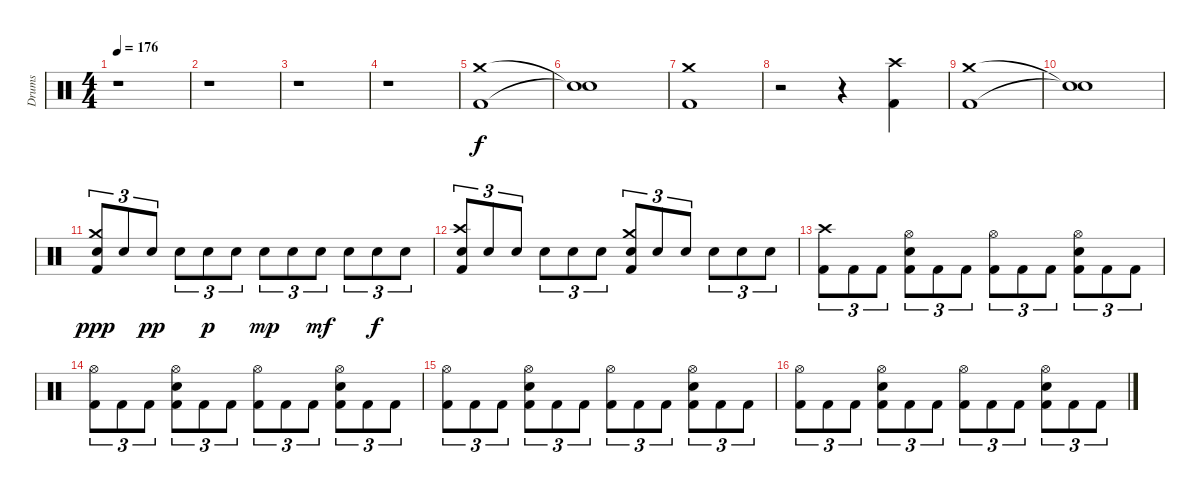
\track ("Drums" "Drums") {instrument percussion}
\staff {score}
\articulation defaults
\ts (4 4)
\tempo 176
\clef neutral
\ks c
r.1{dy f} |
r.1 |
r.1 |
r.1 |
("Kick (hit) 2" "Crash medium (hit)").1 |
("Snare (hit)"{t} "Snare (hit)"{t}).1 |
("Kick (hit) 2" "Crash medium (hit)").1 |
r.2 r.4 ("Kick (hit) 2" "Crash high (hit)").4 |
("Kick (hit) 2" "Crash medium (hit)").1 |
("Snare (hit)"{t} "Snare (hit)"{t}).1 |
("Kick (hit) 2" "Electric Snare (hit)" "Crash medium (hit)").8{tu (3 2) dy ppp} "Electric Snare (hit)".8{tu (3 2)} "Electric Snare (hit)".8{tu (3 2) dy pp} "Electric Snare (hit)".8{tu (3 2)} "Electric Snare (hit)".8{tu (3 2) dy p} "Electric Snare (hit)".8{tu (3 2)} "Electric Snare (hit)".8{tu (3 2) dy mp} "Electric Snare (hit)".8{tu (3 2)} "Electric Snare (hit)".8{tu (3 2) dy mf} "Electric Snare (hit)".8{tu (3 2)} "Electric Snare (hit)".8{tu (3 2) dy f} "Electric Snare (hit)".8{tu (3 2)} |
("Kick (hit) 2" "Electric Snare (hit)" "Crash high (hit)").8{tu (3 2)} "Electric Snare (hit)".8{tu (3 2)} "Electric Snare (hit)".8{tu (3 2)} "Electric Snare (hit)".8{tu (3 2)} "Electric Snare (hit)".8{tu (3 2)} "Electric Snare (hit)".8{tu (3 2)} ("Kick (hit) 2" "Electric Snare (hit)" "Crash medium (hit)").8{tu (3 2)} "Electric Snare (hit)".8{tu (3 2)} "Electric Snare (hit)".8{tu (3 2)} "Electric Snare (hit)".8{tu (3 2)} "Electric Snare (hit)".8{tu (3 2)} "Electric Snare (hit)".8{tu (3 2)} |
("Kick (hit) 2" "Crash high (hit)").8{tu (3 2)} "Kick (hit) 2".8{tu (3 2)} "Kick (hit) 2".8{tu (3 2)} ("Kick (hit) 2" "Electric Snare (hit)" "Hi-Hat (open)").8{tu (3 2)} "Kick (hit) 2".8{tu (3 2)} "Kick (hit) 2".8{tu (3 2)} ("Kick (hit) 2" "Hi-Hat (open)").8{tu (3 2)} "Kick (hit) 2".8{tu (3 2)} "Kick (hit) 2".8{tu (3 2)} ("Kick (hit) 2" "Electric Snare (hit)" "Hi-Hat (open)").8{tu (3 2)} "Kick (hit) 2".8{tu (3 2)} "Kick (hit) 2".8{tu (3 2)} |
("Kick (hit) 2" "Hi-Hat (open)").8{tu (3 2)} "Kick (hit) 2".8{tu (3 2)} "Kick (hit) 2".8{tu (3 2)} ("Kick (hit) 2" "Electric Snare (hit)" "Hi-Hat (open)").8{tu (3 2)} "Kick (hit) 2".8{tu (3 2)} "Kick (hit) 2".8{tu (3 2)} ("Kick (hit) 2" "Hi-Hat (open)").8{tu (3 2)} "Kick (hit) 2".8{tu (3 2)} "Kick (hit) 2".8{tu (3 2)} ("Kick (hit) 2" "Electric Snare (hit)" "Hi-Hat (open)").8{tu (3 2)} "Kick (hit) 2".8{tu (3 2)} "Kick (hit) 2".8{tu (3 2)} |
("Kick (hit) 2" "Hi-Hat (open)").8{tu (3 2)} "Kick (hit) 2".8{tu (3 2)} "Kick (hit) 2".8{tu (3 2)} ("Kick (hit) 2" "Electric Snare (hit)" "Hi-Hat (open)").8{tu (3 2)} "Kick (hit) 2".8{tu (3 2)} "Kick (hit) 2".8{tu (3 2)} ("Kick (hit) 2" "Hi-Hat (open)").8{tu (3 2)} "Kick (hit) 2".8{tu (3 2)} "Kick (hit) 2".8{tu (3 2)} ("Kick (hit) 2" "Electric Snare (hit)" "Hi-Hat (open)").8{tu (3 2)} "Kick (hit) 2".8{tu (3 2)} "Kick (hit) 2".8{tu (3 2)} |
("Kick (hit) 2" "Hi-Hat (open)").8{tu (3 2)} "Kick (hit) 2".8{tu (3 2)} "Kick (hit) 2".8{tu (3 2)} ("Kick (hit) 2" "Electric Snare (hit)" "Hi-Hat (open)").8{tu (3 2)} "Kick (hit) 2".8{tu (3 2)} "Kick (hit) 2".8{tu (3 2)} ("Kick (hit) 2" "Hi-Hat (open)").8{tu (3 2)} "Kick (hit) 2".8{tu (3 2)} "Kick (hit) 2".8{tu (3 2)} ("Kick (hit) 2" "Electric Snare (hit)" "Hi-Hat (open)").8{tu (3 2)} "Kick (hit) 2".8{tu (3 2)} "Kick (hit) 2".8{tu (3 2)}
